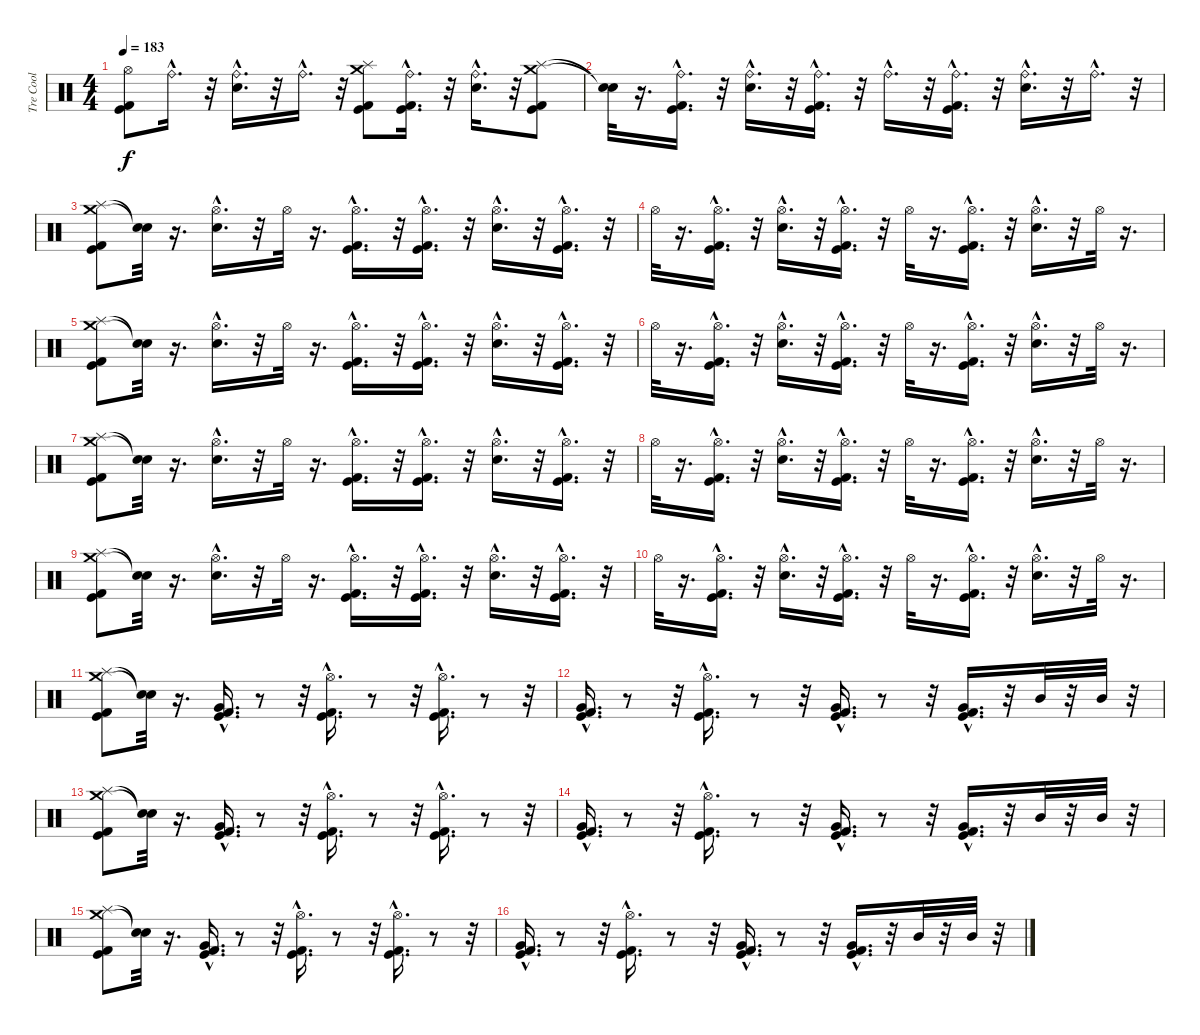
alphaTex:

\track ("Tre Cool" "Tre Cool") {instrument percussion}
\staff {score}
\articulation defaults
\ts (4 4)
\tempo 183
\clef neutral
\ks c
("Kick (hit)" "Kick (hit) 2" "Hi-Hat (open)").8{dy f} "Ride (bell)"{hac}.16{d} r.32 ("Electric Snare (hit)"{hac} "Ride (bell)"{hac}).16{d} r.32 "Ride (bell)"{hac}.16{d} r.32 ("Splash (hit)" "Crash medium (hit)" "Kick (hit)" "Kick (hit) 2").8 ("Kick (hit)"{hac} "Kick (hit) 2"{hac} "Ride (bell)"{hac}).16{d} r.32 ("Electric Snare (hit)"{hac} "Ride (bell)"{hac}).16{d} r.32 ("Splash (hit)" "Crash medium (hit)" "Kick (hit)" "Kick (hit) 2").8 |
("Snare (hit)"{t} "Snare (hit)"{t}).32 r.16{d} ("Kick (hit)"{hac} "Kick (hit) 2"{hac} "Ride (bell)"{hac}).16{d} r.32 ("Electric Snare (hit)"{hac} "Ride (bell)"{hac}).16{d} r.32 ("Kick (hit)"{hac} "Kick (hit) 2"{hac} "Ride (bell)"{hac}).16{d} r.32 "Ride (bell)"{hac}.16{d} r.32 ("Kick (hit)"{hac} "Kick (hit) 2"{hac} "Ride (bell)"{hac}).16{d} r.32 ("Electric Snare (hit)"{hac} "Ride (bell)"{hac}).16{d} r.32 "Ride (bell)"{hac}.16{d} r.32 |
("Splash (hit)" "Crash medium (hit)" "Kick (hit)" "Kick (hit) 2").8 ("Snare (hit)"{t} "Snare (hit)"{t}).32 r.16{d} ("Electric Snare (hit)"{hac} "Hi-Hat (open)"{hac}).16{d} r.32 "Hi-Hat (open)".32 r.16{d} ("Kick (hit)"{hac} "Kick (hit) 2"{hac} "Hi-Hat (open)"{hac}).16{d} r.32 ("Kick (hit)"{hac} "Kick (hit) 2"{hac} "Hi-Hat (open)"{hac}).16{d} r.32 ("Electric Snare (hit)"{hac} "Hi-Hat (open)"{hac}).16{d} r.32 ("Kick (hit)"{hac} "Kick (hit) 2"{hac} "Hi-Hat (open)"{hac}).16{d} r.32 |
"Hi-Hat (open)".32 r.16{d} ("Kick (hit)"{hac} "Kick (hit) 2"{hac} "Hi-Hat (open)"{hac}).16{d} r.32 ("Electric Snare (hit)"{hac} "Hi-Hat (open)"{hac}).16{d} r.32 ("Kick (hit)"{hac} "Kick (hit) 2"{hac} "Hi-Hat (open)"{hac}).16{d} r.32 "Hi-Hat (open)".32 r.16{d} ("Kick (hit)"{hac} "Kick (hit) 2"{hac} "Hi-Hat (open)"{hac}).16{d} r.32 ("Electric Snare (hit)"{hac} "Hi-Hat (open)"{hac}).16{d} r.32 "Hi-Hat (open)".32 r.16{d} |
("Splash (hit)" "Crash medium (hit)" "Kick (hit)" "Kick (hit) 2").8 ("Snare (hit)"{t} "Snare (hit)"{t}).32 r.16{d} ("Electric Snare (hit)"{hac} "Hi-Hat (open)"{hac}).16{d} r.32 "Hi-Hat (open)".32 r.16{d} ("Kick (hit)"{hac} "Kick (hit) 2"{hac} "Hi-Hat (open)"{hac}).16{d} r.32 ("Kick (hit)"{hac} "Kick (hit) 2"{hac} "Hi-Hat (open)"{hac}).16{d} r.32 ("Electric Snare (hit)"{hac} "Hi-Hat (open)"{hac}).16{d} r.32 ("Kick (hit)"{hac} "Kick (hit) 2"{hac} "Hi-Hat (open)"{hac}).16{d} r.32 |
"Hi-Hat (open)".32 r.16{d} ("Kick (hit)"{hac} "Kick (hit) 2"{hac} "Hi-Hat (open)"{hac}).16{d} r.32 ("Electric Snare (hit)"{hac} "Hi-Hat (open)"{hac}).16{d} r.32 ("Kick (hit)"{hac} "Kick (hit) 2"{hac} "Hi-Hat (open)"{hac}).16{d} r.32 "Hi-Hat (open)".32 r.16{d} ("Kick (hit)"{hac} "Kick (hit) 2"{hac} "Hi-Hat (open)"{hac}).16{d} r.32 ("Electric Snare (hit)"{hac} "Hi-Hat (open)"{hac}).16{d} r.32 "Hi-Hat (open)".32 r.16{d} |
("Splash (hit)" "Crash medium (hit)" "Kick (hit)" "Kick (hit) 2").8 ("Snare (hit)"{t} "Snare (hit)"{t}).32 r.16{d} ("Electric Snare (hit)"{hac} "Hi-Hat (open)"{hac}).16{d} r.32 "Hi-Hat (open)".32 r.16{d} ("Kick (hit)"{hac} "Kick (hit) 2"{hac} "Hi-Hat (open)"{hac}).16{d} r.32 ("Kick (hit)"{hac} "Kick (hit) 2"{hac} "Hi-Hat (open)"{hac}).16{d} r.32 ("Electric Snare (hit)"{hac} "Hi-Hat (open)"{hac}).16{d} r.32 ("Kick (hit)"{hac} "Kick (hit) 2"{hac} "Hi-Hat (open)"{hac}).16{d} r.32 |
"Hi-Hat (open)".32 r.16{d} ("Kick (hit)"{hac} "Kick (hit) 2"{hac} "Hi-Hat (open)"{hac}).16{d} r.32 ("Electric Snare (hit)"{hac} "Hi-Hat (open)"{hac}).16{d} r.32 ("Kick (hit)"{hac} "Kick (hit) 2"{hac} "Hi-Hat (open)"{hac}).16{d} r.32 "Hi-Hat (open)".32 r.16{d} ("Kick (hit)"{hac} "Kick (hit) 2"{hac} "Hi-Hat (open)"{hac}).16{d} r.32 ("Electric Snare (hit)"{hac} "Hi-Hat (open)"{hac}).16{d} r.32 "Hi-Hat (open)".32 r.16{d} |
("Splash (hit)" "Crash medium (hit)" "Kick (hit)" "Kick (hit) 2").8 ("Snare (hit)"{t} "Snare (hit)"{t}).32 r.16{d} ("Electric Snare (hit)"{hac} "Hi-Hat (open)"{hac}).16{d} r.32 "Hi-Hat (open)".32 r.16{d} ("Kick (hit)"{hac} "Kick (hit) 2"{hac} "Hi-Hat (open)"{hac}).16{d} r.32 ("Kick (hit)"{hac} "Kick (hit) 2"{hac} "Hi-Hat (open)"{hac}).16{d} r.32 ("Electric Snare (hit)"{hac} "Hi-Hat (open)"{hac}).16{d} r.32 ("Kick (hit)"{hac} "Kick (hit) 2"{hac} "Hi-Hat (open)"{hac}).16{d} r.32 |
"Hi-Hat (open)".32 r.16{d} ("Kick (hit)"{hac} "Kick (hit) 2"{hac} "Hi-Hat (open)"{hac}).16{d} r.32 ("Electric Snare (hit)"{hac} "Hi-Hat (open)"{hac}).16{d} r.32 ("Kick (hit)"{hac} "Kick (hit) 2"{hac} "Hi-Hat (open)"{hac}).16{d} r.32 "Hi-Hat (open)".32 r.16{d} ("Kick (hit)"{hac} "Kick (hit) 2"{hac} "Hi-Hat (open)"{hac}).16{d} r.32 ("Electric Snare (hit)"{hac} "Hi-Hat (open)"{hac}).16{d} r.32 "Hi-Hat (open)".32 r.16{d} |
("Splash (hit)" "Crash medium (hit)" "Kick (hit)" "Kick (hit) 2").8 ("Snare (hit)"{t} "Snare (hit)"{t}).32 r.16{d} ("Very Low Tom (hit)"{hac} "Kick (hit)"{hac} "Kick (hit) 2"{hac}).16{d} r.8 r.32 ("Kick (hit) 2"{hac} "Hi-Hat (open)"{hac} "Kick (hit)"{hac}).16{d} r.8 r.32 ("Kick (hit)"{hac} "Kick (hit) 2"{hac} "Hi-Hat (open)"{hac}).16{d} r.8 r.32 |
("Very Low Tom (hit)"{hac} "Kick (hit)"{hac} "Kick (hit) 2"{hac}).16{d} r.8 r.32 ("Kick (hit) 2"{hac} "Hi-Hat (open)"{hac} "Kick (hit)"{hac}).16{d} r.8 r.32 ("Kick (hit)"{hac} "Kick (hit) 2"{hac} "Very Low Tom (hit)"{hac}).16{d} r.8 r.32 ("Kick (hit)"{hac} "Kick (hit) 2"{hac} "Very Low Tom (hit)"{hac}).16{d} r.32 "Mid Tom (hit)".32 r.32 "Mid Tom (hit)".32 r.32 |
("Splash (hit)" "Crash medium (hit)" "Kick (hit)" "Kick (hit) 2").8 ("Snare (hit)"{t} "Snare (hit)"{t}).32 r.16{d} ("Very Low Tom (hit)"{hac} "Kick (hit)"{hac} "Kick (hit) 2"{hac}).16{d} r.8 r.32 ("Kick (hit) 2"{hac} "Hi-Hat (open)"{hac} "Kick (hit)"{hac}).16{d} r.8 r.32 ("Kick (hit)"{hac} "Kick (hit) 2"{hac} "Hi-Hat (open)"{hac}).16{d} r.8 r.32 |
("Very Low Tom (hit)"{hac} "Kick (hit)"{hac} "Kick (hit) 2"{hac}).16{d} r.8 r.32 ("Kick (hit) 2"{hac} "Hi-Hat (open)"{hac} "Kick (hit)"{hac}).16{d} r.8 r.32 ("Kick (hit)"{hac} "Kick (hit) 2"{hac} "Very Low Tom (hit)"{hac}).16{d} r.8 r.32 ("Kick (hit)"{hac} "Kick (hit) 2"{hac} "Very Low Tom (hit)"{hac}).16{d} r.32 "Mid Tom (hit)".32 r.32 "Mid Tom (hit)".32 r.32 |
("Splash (hit)" "Crash medium (hit)" "Kick (hit)" "Kick (hit) 2").8 ("Snare (hit)"{t} "Snare (hit)"{t}).32 r.16{d} ("Very Low Tom (hit)"{hac} "Kick (hit)"{hac} "Kick (hit) 2"{hac}).16{d} r.8 r.32 ("Kick (hit) 2"{hac} "Hi-Hat (open)"{hac} "Kick (hit)"{hac}).16{d} r.8 r.32 ("Kick (hit)"{hac} "Kick (hit) 2"{hac} "Hi-Hat (open)"{hac}).16{d} r.8 r.32 |
("Very Low Tom (hit)"{hac} "Kick (hit)"{hac} "Kick (hit) 2"{hac}).16{d} r.8 r.32 ("Kick (hit) 2"{hac} "Hi-Hat (open)"{hac} "Kick (hit)"{hac}).16{d} r.8 r.32 ("Kick (hit)"{hac} "Kick (hit) 2"{hac} "Very Low Tom (hit)"{hac}).16{d} r.8 r.32 ("Kick (hit)"{hac} "Kick (hit) 2"{hac} "Very Low Tom (hit)"{hac}).16{d} r.32 "Mid Tom (hit)".32 r.32 "Mid Tom (hit)".32 r.32
